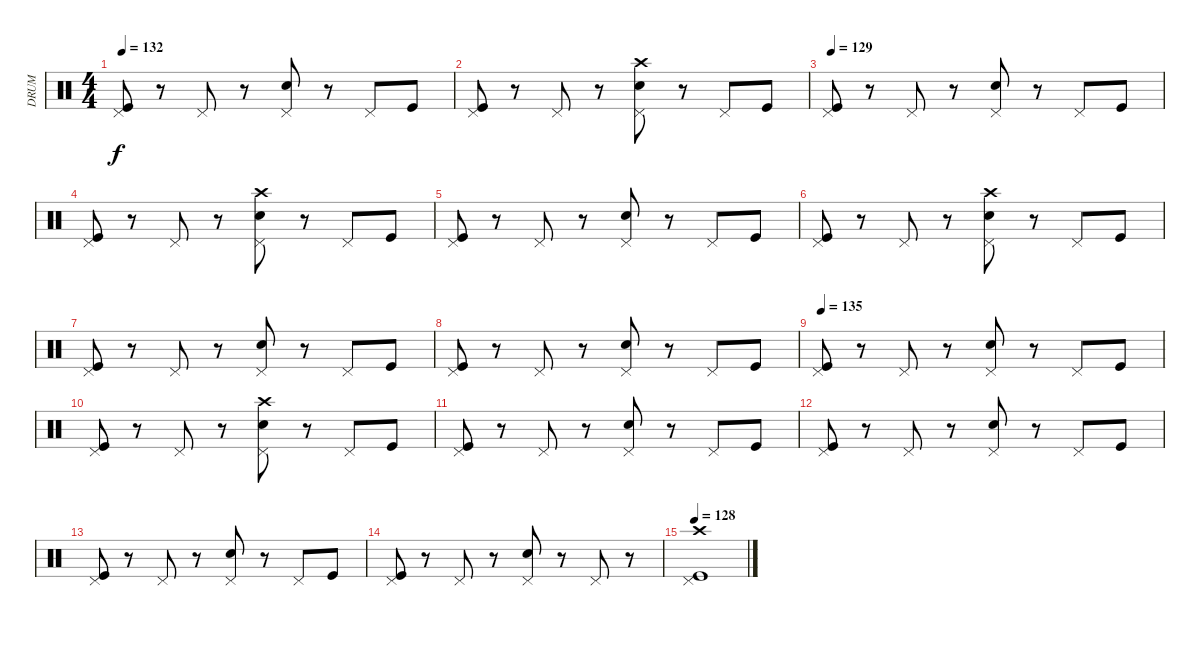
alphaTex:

\track ("DRUM" "DRUM") {instrument percussion}
\staff {score}
\articulation defaults
\ts (4 4)
\tempo 132
\clef neutral
\ks c
("Pedal Hi-Hat (hit)" "Kick (hit)").8{dy f} r.8 "Pedal Hi-Hat (hit)".8 r.8 ("Pedal Hi-Hat (hit)" "Snare (hit) 2").8 r.8 "Pedal Hi-Hat (hit)".8 "Kick (hit)".8 |
("Pedal Hi-Hat (hit)" "Kick (hit)").8 r.8 "Pedal Hi-Hat (hit)".8 r.8 ("Pedal Hi-Hat (hit)" "Crash high (hit)" "Snare (hit) 2").8 r.8 "Pedal Hi-Hat (hit)".8 "Kick (hit)".8 |
\tempo 129
("Pedal Hi-Hat (hit)" "Kick (hit)").8 r.8 "Pedal Hi-Hat (hit)".8 r.8 ("Pedal Hi-Hat (hit)" "Snare (hit) 2").8 r.8 "Pedal Hi-Hat (hit)".8 "Kick (hit)".8 |
("Pedal Hi-Hat (hit)" "Kick (hit)").8 r.8 "Pedal Hi-Hat (hit)".8 r.8 ("Pedal Hi-Hat (hit)" "Crash high (hit)" "Snare (hit) 2").8 r.8 "Pedal Hi-Hat (hit)".8 "Kick (hit)".8 |
("Pedal Hi-Hat (hit)" "Kick (hit)").8 r.8 "Pedal Hi-Hat (hit)".8 r.8 ("Pedal Hi-Hat (hit)" "Snare (hit) 2").8 r.8 "Pedal Hi-Hat (hit)".8 "Kick (hit)".8 |
("Pedal Hi-Hat (hit)" "Kick (hit)").8 r.8 "Pedal Hi-Hat (hit)".8 r.8 ("Pedal Hi-Hat (hit)" "Crash high (hit)" "Snare (hit) 2").8 r.8 "Pedal Hi-Hat (hit)".8 "Kick (hit)".8 |
("Pedal Hi-Hat (hit)" "Kick (hit)").8 r.8 "Pedal Hi-Hat (hit)".8 r.8 ("Pedal Hi-Hat (hit)" "Snare (hit) 2").8 r.8 "Pedal Hi-Hat (hit)".8 "Kick (hit)".8 |
("Pedal Hi-Hat (hit)" "Kick (hit)").8 r.8 "Pedal Hi-Hat (hit)".8 r.8 ("Pedal Hi-Hat (hit)" "Snare (hit) 2").8 r.8 "Pedal Hi-Hat (hit)".8 "Kick (hit)".8 |
\tempo 135
("Pedal Hi-Hat (hit)" "Kick (hit)").8 r.8 "Pedal Hi-Hat (hit)".8 r.8 ("Pedal Hi-Hat (hit)" "Snare (hit) 2").8 r.8 "Pedal Hi-Hat (hit)".8 "Kick (hit)".8 |
("Pedal Hi-Hat (hit)" "Kick (hit)").8 r.8 "Pedal Hi-Hat (hit)".8 r.8 ("Pedal Hi-Hat (hit)" "Crash high (hit)" "Snare (hit) 2").8 r.8 "Pedal Hi-Hat (hit)".8 "Kick (hit)".8 |
("Pedal Hi-Hat (hit)" "Kick (hit)").8 r.8 "Pedal Hi-Hat (hit)".8 r.8 ("Pedal Hi-Hat (hit)" "Snare (hit) 2").8 r.8 "Pedal Hi-Hat (hit)".8 "Kick (hit)".8 |
("Pedal Hi-Hat (hit)" "Kick (hit)").8 r.8 "Pedal Hi-Hat (hit)".8 r.8 ("Pedal Hi-Hat (hit)" "Snare (hit) 2").8 r.8 "Pedal Hi-Hat (hit)".8 "Kick (hit)".8 |
("Pedal Hi-Hat (hit)" "Kick (hit)").8 r.8 "Pedal Hi-Hat (hit)".8 r.8 ("Pedal Hi-Hat (hit)" "Snare (hit) 2").8 r.8 "Pedal Hi-Hat (hit)".8 "Kick (hit)".8 |
("Pedal Hi-Hat (hit)" "Kick (hit)").8 r.8 "Pedal Hi-Hat (hit)".8 r.8 ("Pedal Hi-Hat (hit)" "Snare (hit) 2").8 r.8 "Pedal Hi-Hat (hit)".8 r.8 |
\tempo 128
("Pedal Hi-Hat (hit)" "Crash high (hit)" "Kick (hit)").1
